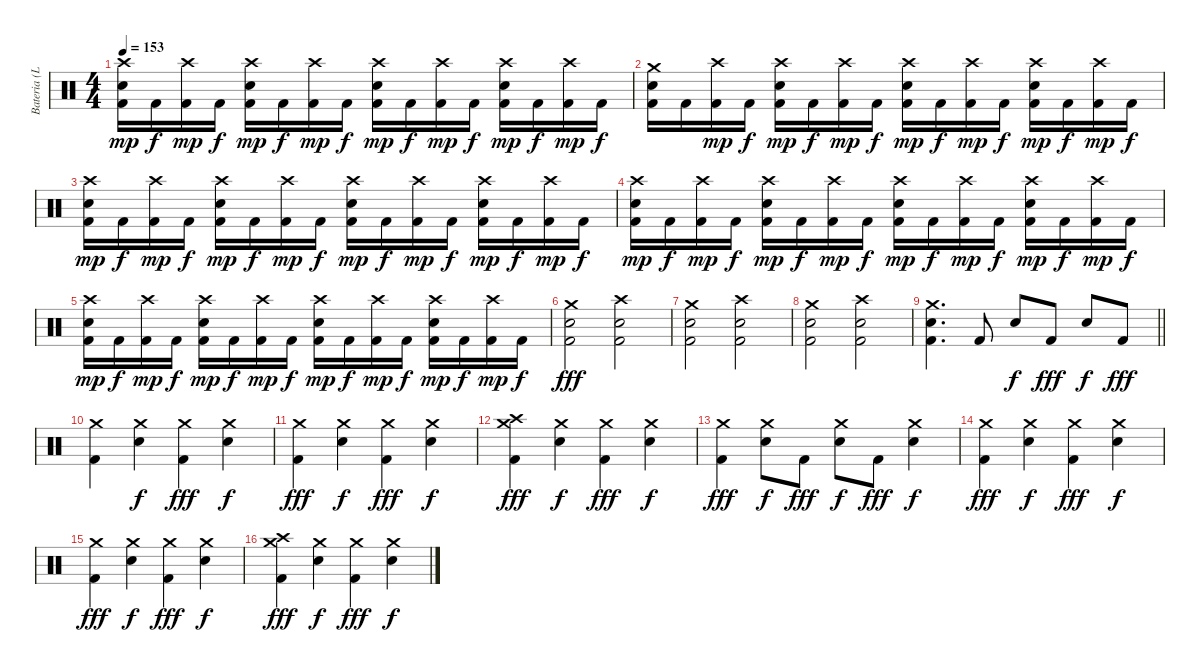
\track ("Bateria (Lars)" "Bateria (L") {instrument percussion}
\staff {score}
\articulation defaults
\ts (4 4)
\tempo 153
\clef neutral
\ks c
("Crash high (hit)" "Electric Snare (hit)" "Kick (hit) 2").16{dy mp} "Kick (hit) 2".16{dy f} ("Crash high (hit)" "Kick (hit) 2").16{dy mp} "Kick (hit) 2".16{dy f} ("Crash high (hit)" "Electric Snare (hit)" "Kick (hit) 2").16{dy mp} "Kick (hit) 2".16{dy f} ("Crash high (hit)" "Kick (hit) 2").16{dy mp} "Kick (hit) 2".16{dy f} ("Crash high (hit)" "Electric Snare (hit)" "Kick (hit) 2").16{dy mp} "Kick (hit) 2".16{dy f} ("Crash high (hit)" "Kick (hit) 2").16{dy mp} "Kick (hit) 2".16{dy f} ("Crash high (hit)" "Electric Snare (hit)" "Kick (hit) 2").16{dy mp} "Kick (hit) 2".16{dy f} ("Crash high (hit)" "Kick (hit) 2").16{dy mp} "Kick (hit) 2".16{dy f} |
("Crash medium (hit)" "Electric Snare (hit)" "Kick (hit) 2").16 "Kick (hit) 2".16 ("Crash high (hit)" "Kick (hit) 2").16{dy mp} "Kick (hit) 2".16{dy f} ("Crash high (hit)" "Electric Snare (hit)" "Kick (hit) 2").16{dy mp} "Kick (hit) 2".16{dy f} ("Crash high (hit)" "Kick (hit) 2").16{dy mp} "Kick (hit) 2".16{dy f} ("Crash high (hit)" "Electric Snare (hit)" "Kick (hit) 2").16{dy mp} "Kick (hit) 2".16{dy f} ("Crash high (hit)" "Kick (hit) 2").16{dy mp} "Kick (hit) 2".16{dy f} ("Crash high (hit)" "Electric Snare (hit)" "Kick (hit) 2").16{dy mp} "Kick (hit) 2".16{dy f} ("Crash high (hit)" "Kick (hit) 2").16{dy mp} "Kick (hit) 2".16{dy f} |
("Crash high (hit)" "Electric Snare (hit)" "Kick (hit) 2").16{dy mp} "Kick (hit) 2".16{dy f} ("Crash high (hit)" "Kick (hit) 2").16{dy mp} "Kick (hit) 2".16{dy f} ("Crash high (hit)" "Electric Snare (hit)" "Kick (hit) 2").16{dy mp} "Kick (hit) 2".16{dy f} ("Crash high (hit)" "Kick (hit) 2").16{dy mp} "Kick (hit) 2".16{dy f} ("Crash high (hit)" "Electric Snare (hit)" "Kick (hit) 2").16{dy mp} "Kick (hit) 2".16{dy f} ("Crash high (hit)" "Kick (hit) 2").16{dy mp} "Kick (hit) 2".16{dy f} ("Crash high (hit)" "Electric Snare (hit)" "Kick (hit) 2").16{dy mp} "Kick (hit) 2".16{dy f} ("Crash high (hit)" "Kick (hit) 2").16{dy mp} "Kick (hit) 2".16{dy f} |
("Crash high (hit)" "Electric Snare (hit)" "Kick (hit) 2").16{dy mp} "Kick (hit) 2".16{dy f} ("Crash high (hit)" "Kick (hit) 2").16{dy mp} "Kick (hit) 2".16{dy f} ("Crash high (hit)" "Electric Snare (hit)" "Kick (hit) 2").16{dy mp} "Kick (hit) 2".16{dy f} ("Crash high (hit)" "Kick (hit) 2").16{dy mp} "Kick (hit) 2".16{dy f} ("Crash high (hit)" "Electric Snare (hit)" "Kick (hit) 2").16{dy mp} "Kick (hit) 2".16{dy f} ("Crash high (hit)" "Kick (hit) 2").16{dy mp} "Kick (hit) 2".16{dy f} ("Crash high (hit)" "Electric Snare (hit)" "Kick (hit) 2").16{dy mp} "Kick (hit) 2".16{dy f} ("Crash high (hit)" "Kick (hit) 2").16{dy mp} "Kick (hit) 2".16{dy f} |
("Crash high (hit)" "Electric Snare (hit)" "Kick (hit) 2").16{dy mp} "Kick (hit) 2".16{dy f} ("Crash high (hit)" "Kick (hit) 2").16{dy mp} "Kick (hit) 2".16{dy f} ("Crash high (hit)" "Electric Snare (hit)" "Kick (hit) 2").16{dy mp} "Kick (hit) 2".16{dy f} ("Crash high (hit)" "Kick (hit) 2").16{dy mp} "Kick (hit) 2".16{dy f} ("Crash high (hit)" "Electric Snare (hit)" "Kick (hit) 2").16{dy mp} "Kick (hit) 2".16{dy f} ("Crash high (hit)" "Kick (hit) 2").16{dy mp} "Kick (hit) 2".16{dy f} ("Crash high (hit)" "Electric Snare (hit)" "Kick (hit) 2").16{dy mp} "Kick (hit) 2".16{dy f} ("Crash high (hit)" "Kick (hit) 2").16{dy mp} "Kick (hit) 2".16{dy f} |
("Crash medium (hit)" "Electric Snare (hit)" "Kick (hit) 2").2{dy fff} ("Crash high (hit)" "Electric Snare (hit)" "Kick (hit) 2").2 |
("Crash medium (hit)" "Electric Snare (hit)" "Kick (hit) 2").2 ("Crash high (hit)" "Electric Snare (hit)" "Kick (hit) 2").2 |
("Crash medium (hit)" "Electric Snare (hit)" "Kick (hit) 2").2 ("Crash high (hit)" "Electric Snare (hit)" "Kick (hit) 2").2 |
\barLineRight lightlight
("Crash medium (hit)" "Electric Snare (hit)" "Kick (hit) 2").4{d} "Kick (hit) 2".8 "Electric Snare (hit)".8{dy f} "Kick (hit) 2".8{dy fff} "Electric Snare (hit)".8{dy f} "Kick (hit) 2".8{dy fff} |
("Crash medium (hit)" "Kick (hit) 2").4 ("Crash medium (hit)" "Electric Snare (hit)").4{dy f} ("Crash medium (hit)" "Kick (hit) 2").4{dy fff} ("Crash medium (hit)" "Electric Snare (hit)").4{dy f} |
("Crash medium (hit)" "Kick (hit) 2").4{dy fff} ("Crash medium (hit)" "Electric Snare (hit)").4{dy f} ("Crash medium (hit)" "Kick (hit) 2").4{dy fff} ("Crash medium (hit)" "Electric Snare (hit)").4{dy f} |
("Crash medium (hit)" "Crash high (hit)" "Kick (hit) 2").4{dy fff} ("Crash medium (hit)" "Electric Snare (hit)").4{dy f} ("Crash medium (hit)" "Kick (hit) 2").4{dy fff} ("Crash medium (hit)" "Electric Snare (hit)").4{dy f} |
("Crash medium (hit)" "Kick (hit) 2").4{dy fff} ("Crash medium (hit)" "Electric Snare (hit)").8{dy f} "Kick (hit) 2".8{dy fff} ("Crash medium (hit)" "Electric Snare (hit)").8{dy f} "Kick (hit) 2".8{dy fff} ("Crash medium (hit)" "Electric Snare (hit)").4{dy f} |
("Crash medium (hit)" "Kick (hit) 2").4{dy fff} ("Crash medium (hit)" "Electric Snare (hit)").4{dy f} ("Crash medium (hit)" "Kick (hit) 2").4{dy fff} ("Crash medium (hit)" "Electric Snare (hit)").4{dy f} |
("Crash medium (hit)" "Kick (hit) 2").4{dy fff} ("Crash medium (hit)" "Electric Snare (hit)").4{dy f} ("Crash medium (hit)" "Kick (hit) 2").4{dy fff} ("Crash medium (hit)" "Electric Snare (hit)").4{dy f} |
("Crash medium (hit)" "Crash high (hit)" "Kick (hit) 2").4{dy fff} ("Crash medium (hit)" "Electric Snare (hit)").4{dy f} ("Crash medium (hit)" "Kick (hit) 2").4{dy fff} ("Crash medium (hit)" "Electric Snare (hit)").4{dy f}
